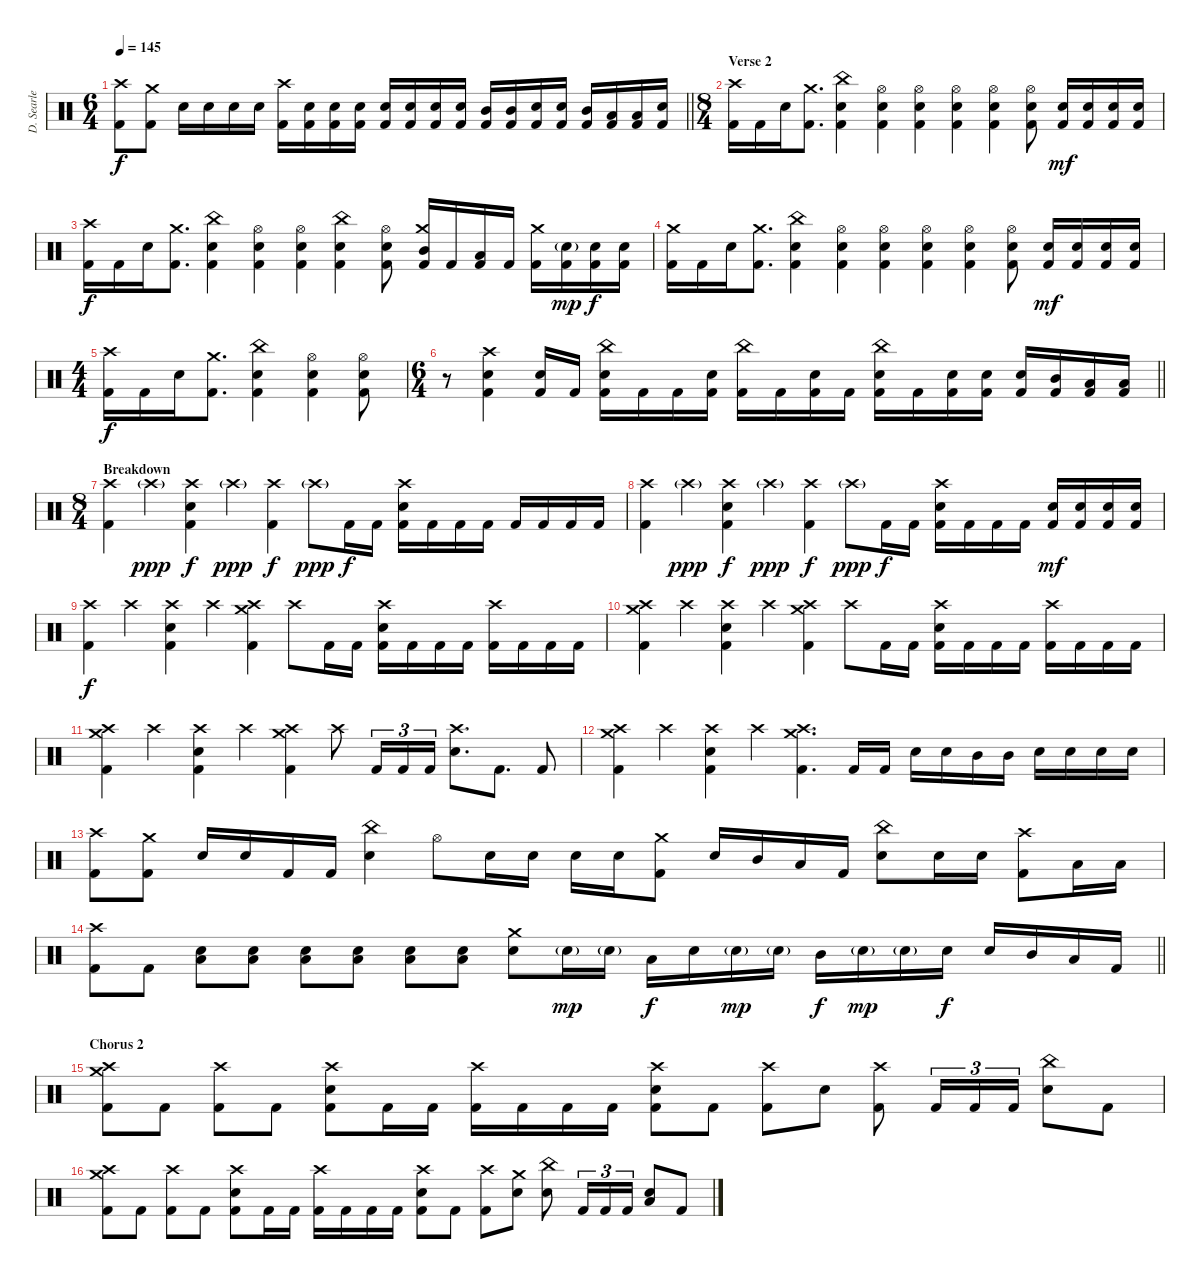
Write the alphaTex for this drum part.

\track ("D. Searle" "D. Searle") {instrument percussion}
\staff {score}
\articulation defaults
\ts (6 4)
\tempo 145
\clef neutral
\barLineRight lightlight
\ks c
("Crash high (hit)" "Kick (hit) 2").8{dy f} ("Crash medium (hit)" "Kick (hit) 2").8 "Electric Snare (hit)".16 "Electric Snare (hit)".16 "Electric Snare (hit)".16 "Electric Snare (hit)".16 ("Crash high (hit)" "Kick (hit) 2").16 ("Electric Snare (hit)" "Kick (hit) 2").16 ("Electric Snare (hit)" "Kick (hit) 2").16 ("Electric Snare (hit)" "Kick (hit) 2").16 ("Electric Snare (hit)" "Kick (hit) 2").16 ("Electric Snare (hit)" "Kick (hit) 2").16 ("Electric Snare (hit)" "Kick (hit) 2").16 ("Electric Snare (hit)" "Kick (hit) 2").16 ("Mid Tom (hit)" "Kick (hit) 2").16 ("Mid Tom (hit)" "Kick (hit) 2").16 ("Electric Snare (hit)" "Kick (hit) 2").16 ("Electric Snare (hit)" "Kick (hit) 2").16 ("Mid Tom (hit)" "Kick (hit) 2").16 ("Low Tom (hit)" "Kick (hit) 2").16 ("Low Tom (hit)" "Kick (hit) 2").16 ("Electric Snare (hit)" "Kick (hit) 2").16 |
\ts (8 4)
\section ("" "Verse 2")
("Crash high (hit)" "Kick (hit) 2").16 "Kick (hit) 2".16 "Electric Snare (hit)".16 ("Crash medium (hit)" "Kick (hit) 2").8{d} ("China (hit)" "Electric Snare (hit)" "Kick (hit) 2").4 ("Hi-Hat (open)" "Electric Snare (hit)" "Kick (hit) 2").4 ("Hi-Hat (open)" "Electric Snare (hit)" "Kick (hit) 2").4 ("Hi-Hat (open)" "Electric Snare (hit)" "Kick (hit) 2").4 ("Hi-Hat (open)" "Electric Snare (hit)" "Kick (hit) 2").4 ("Hi-Hat (open)" "Electric Snare (hit)" "Kick (hit) 2").8 ("Electric Snare (hit)" "Kick (hit) 2").16{dy mf} ("Electric Snare (hit)" "Kick (hit) 2").16 ("Electric Snare (hit)" "Kick (hit) 2").16 ("Electric Snare (hit)" "Kick (hit) 2").16 |
("Crash high (hit)" "Kick (hit) 2").16{dy f} "Kick (hit) 2".16 "Electric Snare (hit)".16 ("Crash medium (hit)" "Kick (hit) 2").8{d} ("China (hit)" "Electric Snare (hit)" "Kick (hit) 2").4 ("Hi-Hat (open)" "Electric Snare (hit)" "Kick (hit) 2").4 ("Hi-Hat (open)" "Electric Snare (hit)" "Kick (hit) 2").4 ("China (hit)" "Electric Snare (hit)" "Kick (hit) 2").4 ("Hi-Hat (open)" "Electric Snare (hit)" "Kick (hit) 2").8 ("Crash medium (hit)" "Mid Tom (hit)" "Kick (hit) 2").16 "Kick (hit) 2".16 ("Low Tom (hit)" "Kick (hit) 2").16 "Kick (hit) 2".16 ("Crash medium (hit)" "Kick (hit) 2").16 ("Electric Snare (hit)"{g} "Kick (hit) 2").16{dy mp} ("Electric Snare (hit)" "Kick (hit) 2").16{dy f} ("Electric Snare (hit)" "Kick (hit) 2").16 |
("Crash medium (hit)" "Kick (hit) 2").16 "Kick (hit) 2".16 "Electric Snare (hit)".16 ("Crash medium (hit)" "Kick (hit) 2").8{d} ("China (hit)" "Electric Snare (hit)" "Kick (hit) 2").4 ("Hi-Hat (open)" "Electric Snare (hit)" "Kick (hit) 2").4 ("Hi-Hat (open)" "Electric Snare (hit)" "Kick (hit) 2").4 ("Hi-Hat (open)" "Electric Snare (hit)" "Kick (hit) 2").4 ("Hi-Hat (open)" "Electric Snare (hit)" "Kick (hit) 2").4 ("Hi-Hat (open)" "Electric Snare (hit)" "Kick (hit) 2").8 ("Electric Snare (hit)" "Kick (hit) 2").16{dy mf} ("Electric Snare (hit)" "Kick (hit) 2").16 ("Electric Snare (hit)" "Kick (hit) 2").16 ("Electric Snare (hit)" "Kick (hit) 2").16 |
\ts (4 4)
("Crash high (hit)" "Kick (hit) 2").16{dy f} "Kick (hit) 2".16 "Electric Snare (hit)".16 ("Crash medium (hit)" "Kick (hit) 2").8{d} ("China (hit)" "Electric Snare (hit)" "Kick (hit) 2").4 ("Hi-Hat (open)" "Electric Snare (hit)" "Kick (hit) 2").4 ("Hi-Hat (open)" "Electric Snare (hit)" "Kick (hit) 2").8 |
\ts (6 4)
\barLineRight lightlight
r.8 ("Crash high (hit)" "Electric Snare (hit)" "Kick (hit) 2").4 ("Electric Snare (hit)" "Kick (hit) 2").16 "Kick (hit) 2".16 ("China (hit)" "Electric Snare (hit)" "Kick (hit) 2").16 "Kick (hit) 2".16 "Kick (hit) 2".16 ("Electric Snare (hit)" "Kick (hit) 2").16 ("China (hit)" "Kick (hit) 2").16 "Kick (hit) 2".16 ("Electric Snare (hit)" "Kick (hit) 2").16 "Kick (hit) 2".16 ("China (hit)" "Electric Snare (hit)" "Kick (hit) 2").16 "Kick (hit) 2".16 ("Electric Snare (hit)" "Kick (hit) 2").16 ("Electric Snare (hit)" "Kick (hit) 2").16 ("Electric Snare (hit)" "Kick (hit) 2").16 ("Mid Tom (hit)" "Kick (hit) 2").16 ("Low Tom (hit)" "Kick (hit) 2").16 ("Low Tom (hit)" "Kick (hit) 2").16 |
\ts (8 4)
\section ("" "Breakdown")
("Crash high (hit)" "Kick (hit) 2").4 "Crash high (hit)"{g}.4{dy ppp} ("Crash high (hit)" "Electric Snare (hit)" "Kick (hit) 2").4{dy f} "Crash high (hit)"{g}.4{dy ppp} ("Crash high (hit)" "Kick (hit) 2").4{dy f} "Crash high (hit)"{g}.8{dy ppp} "Kick (hit) 2".16{dy f} "Kick (hit) 2".16 ("Crash high (hit)" "Electric Snare (hit)" "Kick (hit) 2").16 "Kick (hit) 2".16 "Kick (hit) 2".16 "Kick (hit) 2".16 "Kick (hit) 2".16 "Kick (hit) 2".16 "Kick (hit) 2".16 "Kick (hit) 2".16 |
("Crash high (hit)" "Kick (hit) 2").4 "Crash high (hit)"{g}.4{dy ppp} ("Crash high (hit)" "Electric Snare (hit)" "Kick (hit) 2").4{dy f} "Crash high (hit)"{g}.4{dy ppp} ("Crash high (hit)" "Kick (hit) 2").4{dy f} "Crash high (hit)"{g}.8{dy ppp} "Kick (hit) 2".16{dy f} "Kick (hit) 2".16 ("Crash high (hit)" "Electric Snare (hit)" "Kick (hit) 2").16 "Kick (hit) 2".16 "Kick (hit) 2".16 "Kick (hit) 2".16 ("Electric Snare (hit)" "Kick (hit) 2").16{dy mf} ("Electric Snare (hit)" "Kick (hit) 2").16 ("Electric Snare (hit)" "Kick (hit) 2").16 ("Electric Snare (hit)" "Kick (hit) 2").16 |
("Crash high (hit)" "Kick (hit) 2").4{dy f} "Crash high (hit)".4 ("Crash high (hit)" "Electric Snare (hit)" "Kick (hit) 2").4 "Crash high (hit)".4 ("Crash high (hit)" "Crash medium (hit)" "Kick (hit) 2").4 "Crash high (hit)".8 "Kick (hit) 2".16 "Kick (hit) 2".16 ("Crash high (hit)" "Electric Snare (hit)" "Kick (hit) 2").16 "Kick (hit) 2".16 "Kick (hit) 2".16 "Kick (hit) 2".16 ("Crash high (hit)" "Kick (hit) 2").16 "Kick (hit) 2".16 "Kick (hit) 2".16 "Kick (hit) 2".16 |
("Crash high (hit)" "Crash medium (hit)" "Kick (hit) 2").4 "Crash high (hit)".4 ("Crash high (hit)" "Electric Snare (hit)" "Kick (hit) 2").4 "Crash high (hit)".4 ("Crash high (hit)" "Crash medium (hit)" "Kick (hit) 2").4 "Crash high (hit)".8 "Kick (hit) 2".16 "Kick (hit) 2".16 ("Crash high (hit)" "Electric Snare (hit)" "Kick (hit) 2").16 "Kick (hit) 2".16 "Kick (hit) 2".16 "Kick (hit) 2".16 ("Crash high (hit)" "Kick (hit) 2").16 "Kick (hit) 2".16 "Kick (hit) 2".16 "Kick (hit) 2".16 |
("Crash high (hit)" "Crash medium (hit)" "Kick (hit) 2").4 "Crash high (hit)".4 ("Crash high (hit)" "Electric Snare (hit)" "Kick (hit) 2").4 "Crash high (hit)".4 ("Crash high (hit)" "Crash medium (hit)" "Kick (hit) 2").4 "Crash high (hit)".8 "Kick (hit) 2".16{tu (3 2)} "Kick (hit) 2".16{tu (3 2)} "Kick (hit) 2".16{tu (3 2)} ("Crash high (hit)" "Electric Snare (hit)").8{d} "Kick (hit) 2".8{d} "Kick (hit) 2".8 |
("Crash high (hit)" "Crash medium (hit)" "Kick (hit) 2").4 "Crash high (hit)".4 ("Crash high (hit)" "Electric Snare (hit)" "Kick (hit) 2").4 "Crash high (hit)".4 ("Crash high (hit)" "Crash medium (hit)" "Kick (hit) 2").4{d} "Kick (hit) 2".16 "Kick (hit) 2".16 "Electric Snare (hit)".16 "Electric Snare (hit)".16 "Mid Tom (hit)".16 "Mid Tom (hit)".16 "Electric Snare (hit)".16 "Electric Snare (hit)".16 "Electric Snare (hit)".16 "Electric Snare (hit)".16 |
("Crash high (hit)" "Kick (hit) 2").8 ("Crash medium (hit)" "Kick (hit) 2").8 "Electric Snare (hit)".16 "Electric Snare (hit)".16 "Kick (hit) 2".16 "Kick (hit) 2".16 ("China (hit)" "Electric Snare (hit)").4 "Hi-Hat (open)".8 "Electric Snare (hit)".16 "Electric Snare (hit)".16 "Electric Snare (hit)".16 "Electric Snare (hit)".16 ("Crash medium (hit)" "Kick (hit) 2").8 "Electric Snare (hit)".16 "Mid Tom (hit)".16 "Low Tom (hit)".16 "Kick (hit) 2".16 ("China (hit)" "Electric Snare (hit)").8 "Electric Snare (hit)".16 "Electric Snare (hit)".16 ("Crash high (hit)" "Kick (hit) 2").8 "Low Tom (hit)".16 "Low Tom (hit)".16 |
\barLineRight lightlight
("Crash high (hit)" "Kick (hit) 2").8 "Kick (hit) 2".8 ("Low Tom (hit)" "Electric Snare (hit)").8 ("Low Tom (hit)" "Electric Snare (hit)").8 ("Low Tom (hit)" "Electric Snare (hit)").8 ("Low Tom (hit)" "Electric Snare (hit)").8 ("Low Tom (hit)" "Electric Snare (hit)").8 ("Low Tom (hit)" "Electric Snare (hit)").8 ("Crash medium (hit)" "Electric Snare (hit)").8 "Electric Snare (hit)"{g}.16{dy mp} "Electric Snare (hit)"{g}.16 "Low Tom (hit)".16{dy f} "Electric Snare (hit)".16 "Electric Snare (hit)"{g}.16{dy mp} "Electric Snare (hit)"{g}.16 "Mid Tom (hit)".16{dy f} "Electric Snare (hit)"{g}.16{dy mp} "Electric Snare (hit)"{g}.16 "Electric Snare (hit)".16{dy f} "Electric Snare (hit)".16 "Mid Tom (hit)".16 "Low Tom (hit)".16 "Kick (hit) 2".16 |
\section ("" "Chorus 2")
("Crash high (hit)" "Crash medium (hit)" "Kick (hit) 2").8 "Kick (hit) 2".8 ("Crash high (hit)" "Kick (hit) 2").8 "Kick (hit) 2".8 ("Crash high (hit)" "Electric Snare (hit)" "Kick (hit) 2").8 "Kick (hit) 2".16 "Kick (hit) 2".16 ("Crash high (hit)" "Kick (hit) 2").16 "Kick (hit) 2".16 "Kick (hit) 2".16 "Kick (hit) 2".16 ("Crash high (hit)" "Electric Snare (hit)" "Kick (hit) 2").8 "Kick (hit) 2".8 ("Crash high (hit)" "Kick (hit) 2").8 "Electric Snare (hit)".8 ("Crash high (hit)" "Kick (hit) 2").8 "Kick (hit) 2".16{tu (3 2)} "Kick (hit) 2".16{tu (3 2)} "Kick (hit) 2".16{tu (3 2)} ("China (hit)" "Electric Snare (hit)").8 "Kick (hit) 2".8 |
("Crash high (hit)" "Crash medium (hit)" "Kick (hit) 2").8 "Kick (hit) 2".8 ("Crash high (hit)" "Kick (hit) 2").8 "Kick (hit) 2".8 ("Crash high (hit)" "Electric Snare (hit)" "Kick (hit) 2").8 "Kick (hit) 2".16 "Kick (hit) 2".16 ("Crash high (hit)" "Kick (hit) 2").16 "Kick (hit) 2".16 "Kick (hit) 2".16 "Kick (hit) 2".16 ("Crash high (hit)" "Electric Snare (hit)" "Kick (hit) 2").8 "Kick (hit) 2".8 ("Crash high (hit)" "Kick (hit) 2").8 ("Crash medium (hit)" "Electric Snare (hit)").8 ("China (hit)" "Electric Snare (hit)").8 "Kick (hit) 2".16{tu (3 2)} "Kick (hit) 2".16{tu (3 2)} "Kick (hit) 2".16{tu (3 2)} ("Low Tom (hit)" "Electric Snare (hit)").8 "Kick (hit) 2".8
